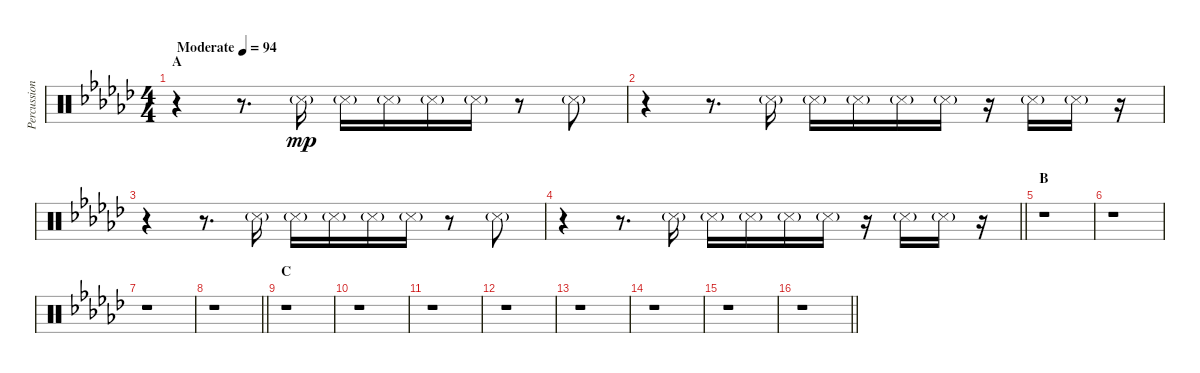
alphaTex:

\track ("Percussion" "Percussion") {instrument percussion}
\staff {score}
\articulation defaults
\ts (4 4)
\section ("" "A")
\tempo (94 "Moderate")
\clef neutral
\ks ebminor
r.4{dy mp} r.8{d} "Snare (side stick) 3"{g}.16 "Snare (side stick) 3"{g}.16 "Snare (side stick) 3"{g}.16 "Snare (side stick) 3"{g}.16 "Snare (side stick) 3"{g}.16 r.8 "Snare (side stick) 3"{g}.8 |
r.4 r.8{d} "Snare (side stick) 3"{g}.16 "Snare (side stick) 3"{g}.16 "Snare (side stick) 3"{g}.16 "Snare (side stick) 3"{g}.16 "Snare (side stick) 3"{g}.16 r.16 "Metronome (hit)"{g}.16 "Snare (side stick) 3"{g}.16 r.16 |
r.4 r.8{d} "Snare (side stick) 3"{g}.16 "Snare (side stick) 3"{g}.16 "Snare (side stick) 3"{g}.16 "Snare (side stick) 3"{g}.16 "Snare (side stick) 3"{g}.16 r.8 "Snare (side stick) 3"{g}.8 |
\barLineRight lightlight
r.4 r.8{d} "Snare (side stick) 3"{g}.16 "Snare (side stick) 3"{g}.16 "Snare (side stick) 3"{g}.16 "Snare (side stick) 3"{g}.16 "Snare (side stick) 3"{g}.16 r.16 "Metronome (hit)"{g}.16 "Snare (side stick) 3"{g}.16 r.16 |
\section ("" "B")
r.1 |
r.1 |
r.1 |
\barLineRight lightlight
r.1 |
\section ("" "C")
r.1 |
r.1 |
r.1 |
r.1 |
r.1 |
r.1 |
r.1 |
\barLineRight lightlight
r.1
